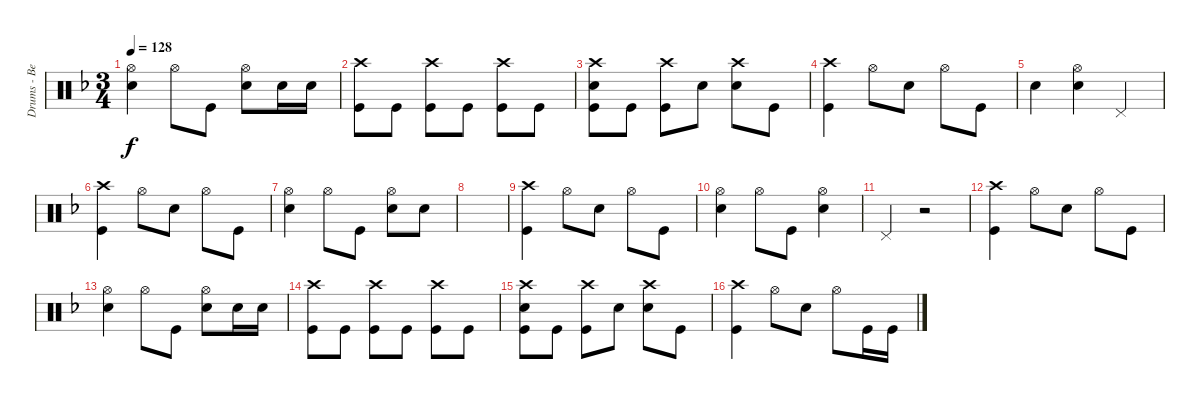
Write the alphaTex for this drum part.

\track ("Drums - Ben Johnston" "Drums - Be") {instrument percussion}
\staff {score}
\articulation defaults
\ts (3 4)
\tempo 128
\clef neutral
\ks dminor
("Hi-Hat (open)" "Snare (hit) 2").4{dy f} "Hi-Hat (open)".8 "Kick (hit)".8 ("Hi-Hat (open)" "Snare (hit) 2").8 "Snare (hit) 2".16 "Snare (hit) 2".16 |
("Crash high (hit)" "Kick (hit)").8 "Kick (hit)".8 ("Crash high (hit)" "Kick (hit)").8 "Kick (hit)".8 ("Crash high (hit)" "Kick (hit)").8 "Kick (hit)".8 |
("Crash high (hit)" "Snare (hit) 2" "Kick (hit)").8 "Kick (hit)".8 ("Crash high (hit)" "Kick (hit)").8 "Snare (hit) 2".8 ("Crash high (hit)" "Snare (hit) 2").8 "Kick (hit)".8 |
("Crash high (hit)" "Kick (hit)").4 "Hi-Hat (open)".8 "Snare (hit) 2".8 "Hi-Hat (open)".8 "Kick (hit)".8 |
"Snare (hit) 2".4 ("Hi-Hat (open)" "Snare (hit) 2").4 "Pedal Hi-Hat (hit)".4 |
("Crash high (hit)" "Kick (hit)").4 "Hi-Hat (open)".8 "Snare (hit) 2".8 "Hi-Hat (open)".8 "Kick (hit)".8 |
("Hi-Hat (open)" "Snare (hit) 2").4 "Hi-Hat (open)".8 "Kick (hit)".8 ("Hi-Hat (open)" "Snare (hit) 2").8 "Snare (hit) 2".8 |
|
("Crash high (hit)" "Kick (hit)").4 "Hi-Hat (open)".8 "Snare (hit) 2".8 "Hi-Hat (open)".8 "Kick (hit)".8 |
("Hi-Hat (open)" "Snare (hit) 2").4 "Hi-Hat (open)".8 "Kick (hit)".8 ("Hi-Hat (open)" "Snare (hit) 2").4 |
"Pedal Hi-Hat (hit)".4 r.2 |
("Crash high (hit)" "Kick (hit)").4 "Hi-Hat (open)".8 "Snare (hit) 2".8 "Hi-Hat (open)".8 "Kick (hit)".8 |
("Hi-Hat (open)" "Snare (hit) 2").4 "Hi-Hat (open)".8 "Kick (hit)".8 ("Hi-Hat (open)" "Snare (hit) 2").8 "Snare (hit) 2".16 "Snare (hit) 2".16 |
("Crash high (hit)" "Kick (hit)").8 "Kick (hit)".8 ("Crash high (hit)" "Kick (hit)").8 "Kick (hit)".8 ("Crash high (hit)" "Kick (hit)").8 "Kick (hit)".8 |
("Crash high (hit)" "Snare (hit) 2" "Kick (hit)").8 "Kick (hit)".8 ("Crash high (hit)" "Kick (hit)").8 "Snare (hit) 2".8 ("Crash high (hit)" "Snare (hit) 2").8 "Kick (hit)".8 |
("Crash high (hit)" "Kick (hit)").4 "Hi-Hat (open)".8 "Snare (hit) 2".8 "Hi-Hat (open)".8 "Kick (hit)".16 "Kick (hit)".16
